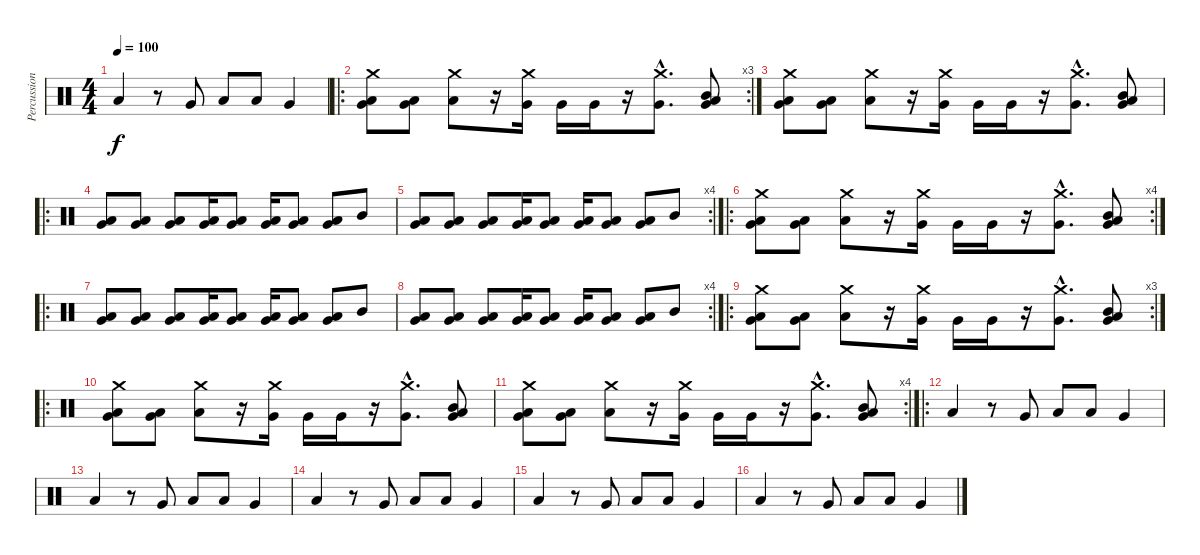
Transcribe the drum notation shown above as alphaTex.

\track ("Percussions" "Percussion") {instrument percussion}
\staff {score}
\articulation defaults
\ts (4 4)
\tempo 100
\clef neutral
\ks c "Low Floor Tom (hit)".4{dy f}
r.8 "Very Low Tom (hit)".8 "Low Tom (hit)".8 "Low Tom (hit)".8 "Very Low Tom (hit)".4 |
\ro
\rc 3
("Low Floor Tom (hit)" "Very Low Tom (hit)" "Crash medium (hit)").8 ("Low Floor Tom (hit)" "Very Low Tom (hit)").8 ("Low Floor Tom (hit)" "Crash medium (hit)").8 r.16 ("Very Low Tom (hit)" "Crash medium (hit)").16 "Very Low Tom (hit)".16 "Very Low Tom (hit)".16 r.16 ("Very Low Tom (hit)"{hac} "Crash medium (hit)"{hac}).8{d} ("Low Floor Tom (hit)" "Very Low Tom (hit)" "Mid Tom (hit)").8 |
("Low Floor Tom (hit)" "Very Low Tom (hit)" "Crash medium (hit)").8 ("Low Floor Tom (hit)" "Very Low Tom (hit)").8 ("Low Floor Tom (hit)" "Crash medium (hit)").8 r.16 ("Very Low Tom (hit)" "Crash medium (hit)").16 "Very Low Tom (hit)".16 "Very Low Tom (hit)".16 r.16 ("Very Low Tom (hit)"{hac} "Crash medium (hit)"{hac}).8{d} ("Low Floor Tom (hit)" "Very Low Tom (hit)" "Mid Tom (hit)").8 |
\ro
("Low Floor Tom (hit)" "Very Low Tom (hit)").8 ("Low Floor Tom (hit)" "Very Low Tom (hit)").8 ("Low Floor Tom (hit)" "Very Low Tom (hit)").8 ("Low Floor Tom (hit)" "Very Low Tom (hit)").16 ("Low Floor Tom (hit)" "Very Low Tom (hit)").8 ("Low Floor Tom (hit)" "Very Low Tom (hit)").16 ("Low Floor Tom (hit)" "Very Low Tom (hit)").8 ("Low Floor Tom (hit)" "Very Low Tom (hit)").8 "Mid Tom (hit)".8 |
\rc 4
("Low Floor Tom (hit)" "Very Low Tom (hit)").8 ("Low Floor Tom (hit)" "Very Low Tom (hit)").8 ("Low Floor Tom (hit)" "Very Low Tom (hit)").8 ("Low Floor Tom (hit)" "Very Low Tom (hit)").16 ("Low Floor Tom (hit)" "Very Low Tom (hit)").8 ("Low Floor Tom (hit)" "Very Low Tom (hit)").16 ("Low Floor Tom (hit)" "Very Low Tom (hit)").8 ("Low Floor Tom (hit)" "Very Low Tom (hit)").8 "Mid Tom (hit)".8 |
\ro
\rc 4
("Low Floor Tom (hit)" "Very Low Tom (hit)" "Crash medium (hit)").8 ("Low Floor Tom (hit)" "Very Low Tom (hit)").8 ("Low Floor Tom (hit)" "Crash medium (hit)").8 r.16 ("Very Low Tom (hit)" "Crash medium (hit)").16 "Very Low Tom (hit)".16 "Very Low Tom (hit)".16 r.16 ("Very Low Tom (hit)"{hac} "Crash medium (hit)"{hac}).8{d} ("Low Floor Tom (hit)" "Very Low Tom (hit)" "Mid Tom (hit)").8 |
\ro
("Low Floor Tom (hit)" "Very Low Tom (hit)").8 ("Low Floor Tom (hit)" "Very Low Tom (hit)").8 ("Low Floor Tom (hit)" "Very Low Tom (hit)").8 ("Low Floor Tom (hit)" "Very Low Tom (hit)").16 ("Low Floor Tom (hit)" "Very Low Tom (hit)").8 ("Low Floor Tom (hit)" "Very Low Tom (hit)").16 ("Low Floor Tom (hit)" "Very Low Tom (hit)").8 ("Low Floor Tom (hit)" "Very Low Tom (hit)").8 "Mid Tom (hit)".8 |
\rc 4
("Low Floor Tom (hit)" "Very Low Tom (hit)").8 ("Low Floor Tom (hit)" "Very Low Tom (hit)").8 ("Low Floor Tom (hit)" "Very Low Tom (hit)").8 ("Low Floor Tom (hit)" "Very Low Tom (hit)").16 ("Low Floor Tom (hit)" "Very Low Tom (hit)").8 ("Low Floor Tom (hit)" "Very Low Tom (hit)").16 ("Low Floor Tom (hit)" "Very Low Tom (hit)").8 ("Low Floor Tom (hit)" "Very Low Tom (hit)").8 "Mid Tom (hit)".8 |
\ro
\rc 3
("Low Floor Tom (hit)" "Very Low Tom (hit)" "Crash medium (hit)").8 ("Low Floor Tom (hit)" "Very Low Tom (hit)").8 ("Low Floor Tom (hit)" "Crash medium (hit)").8 r.16 ("Very Low Tom (hit)" "Crash medium (hit)").16 "Very Low Tom (hit)".16 "Very Low Tom (hit)".16 r.16 ("Very Low Tom (hit)"{hac} "Crash medium (hit)"{hac}).8{d} ("Low Floor Tom (hit)" "Very Low Tom (hit)" "Mid Tom (hit)").8 |
\ro
("Low Floor Tom (hit)" "Very Low Tom (hit)" "Crash medium (hit)").8 ("Low Floor Tom (hit)" "Very Low Tom (hit)").8 ("Low Floor Tom (hit)" "Crash medium (hit)").8 r.16 ("Very Low Tom (hit)" "Crash medium (hit)").16 "Very Low Tom (hit)".16 "Very Low Tom (hit)".16 r.16 ("Very Low Tom (hit)"{hac} "Crash medium (hit)"{hac}).8{d} ("Low Floor Tom (hit)" "Very Low Tom (hit)" "Mid Tom (hit)").8 |
\rc 4
("Low Floor Tom (hit)" "Very Low Tom (hit)" "Crash medium (hit)").8 ("Low Floor Tom (hit)" "Very Low Tom (hit)").8 ("Low Floor Tom (hit)" "Crash medium (hit)").8 r.16 ("Very Low Tom (hit)" "Crash medium (hit)").16 "Very Low Tom (hit)".16 "Very Low Tom (hit)".16 r.16 ("Very Low Tom (hit)"{hac} "Crash medium (hit)"{hac}).8{d} ("Low Floor Tom (hit)" "Very Low Tom (hit)" "Mid Tom (hit)").8 |
\ro "Low Floor Tom (hit)".4
r.8 "Very Low Tom (hit)".8 "Low Tom (hit)".8 "Low Tom (hit)".8 "Very Low Tom (hit)".4 |
"Low Floor Tom (hit)".4 r.8 "Very Low Tom (hit)".8 "Low Tom (hit)".8 "Low Tom (hit)".8 "Very Low Tom (hit)".4 |
"Low Floor Tom (hit)".4 r.8 "Very Low Tom (hit)".8 "Low Tom (hit)".8 "Low Tom (hit)".8 "Very Low Tom (hit)".4 |
"Low Floor Tom (hit)".4 r.8 "Very Low Tom (hit)".8 "Low Tom (hit)".8 "Low Tom (hit)".8 "Very Low Tom (hit)".4 |
"Low Floor Tom (hit)".4 r.8 "Very Low Tom (hit)".8 "Low Tom (hit)".8 "Low Tom (hit)".8 "Very Low Tom (hit)".4
